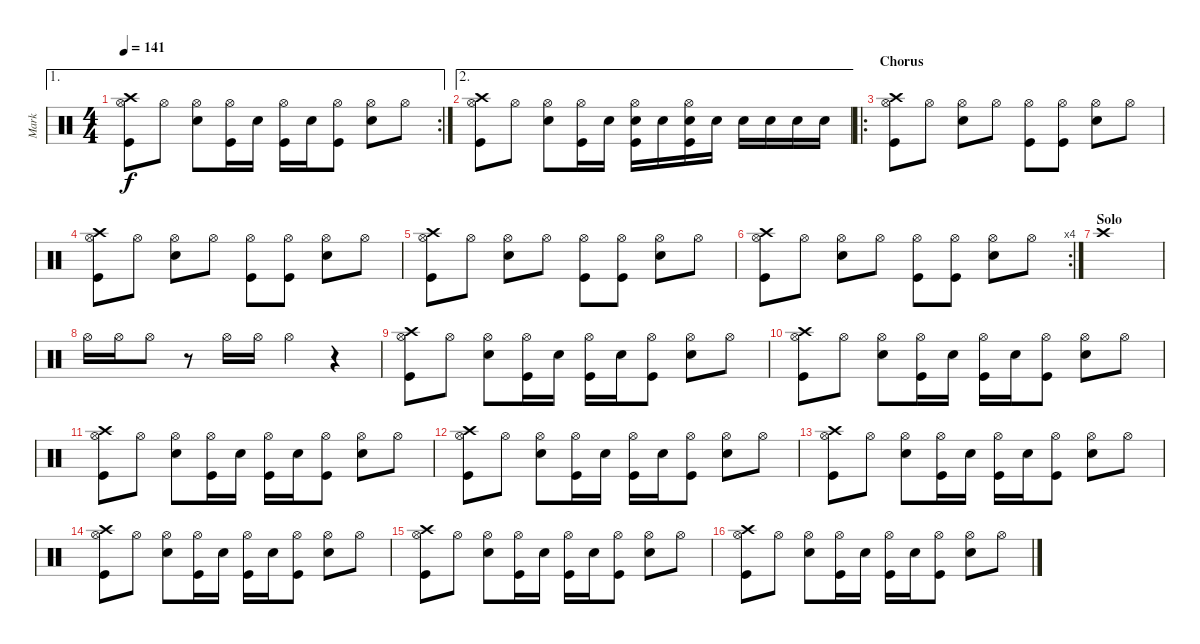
\track ("Mark" "Mark") {instrument percussion}
\staff {score}
\articulation defaults
\ae 1
\rc 2
\ts (4 4)
\tempo 141
\clef neutral
\ks c
("Crash high (hit)" "Hi-Hat (open)" "Kick (hit)").8{dy f} "Hi-Hat (open)".8 ("Hi-Hat (open)" "Electric Snare (hit)").8 ("Hi-Hat (open)" "Kick (hit)").16 "Electric Snare (hit)".16 ("Hi-Hat (open)" "Kick (hit)").16 "Electric Snare (hit)".16 ("Hi-Hat (open)" "Kick (hit)").8 ("Hi-Hat (open)" "Electric Snare (hit)").8 "Hi-Hat (open)".8 |
\ae 2
("Crash high (hit)" "Hi-Hat (open)" "Kick (hit)").8 "Hi-Hat (open)".8 ("Hi-Hat (open)" "Electric Snare (hit)").8 ("Hi-Hat (open)" "Kick (hit)").16 "Electric Snare (hit)".16 ("Hi-Hat (open)" "Electric Snare (hit)" "Kick (hit)").16 "Electric Snare (hit)".16 ("Hi-Hat (open)" "Electric Snare (hit)" "Kick (hit)").16 "Electric Snare (hit)".16 "Electric Snare (hit)".16 "Electric Snare (hit)".16 "Electric Snare (hit)".16 "Electric Snare (hit)".16 |
\ro
\section ("" "Chorus")
("Crash high (hit)" "Hi-Hat (open)" "Kick (hit)").8 "Hi-Hat (open)".8 ("Hi-Hat (open)" "Electric Snare (hit)").8 "Hi-Hat (open)".8 ("Hi-Hat (open)" "Kick (hit)").8 ("Hi-Hat (open)" "Kick (hit)").8 ("Hi-Hat (open)" "Electric Snare (hit)").8 "Hi-Hat (open)".8 |
("Crash high (hit)" "Hi-Hat (open)" "Kick (hit)").8 "Hi-Hat (open)".8 ("Hi-Hat (open)" "Electric Snare (hit)").8 "Hi-Hat (open)".8 ("Hi-Hat (open)" "Kick (hit)").8 ("Hi-Hat (open)" "Kick (hit)").8 ("Hi-Hat (open)" "Electric Snare (hit)").8 "Hi-Hat (open)".8 |
("Crash high (hit)" "Hi-Hat (open)" "Kick (hit)").8 "Hi-Hat (open)".8 ("Hi-Hat (open)" "Electric Snare (hit)").8 "Hi-Hat (open)".8 ("Hi-Hat (open)" "Kick (hit)").8 ("Hi-Hat (open)" "Kick (hit)").8 ("Hi-Hat (open)" "Electric Snare (hit)").8 "Hi-Hat (open)".8 |
\rc 4
("Crash high (hit)" "Hi-Hat (open)" "Kick (hit)").8 "Hi-Hat (open)".8 ("Hi-Hat (open)" "Electric Snare (hit)").8 "Hi-Hat (open)".8 ("Hi-Hat (open)" "Kick (hit)").8 ("Hi-Hat (open)" "Kick (hit)").8 ("Hi-Hat (open)" "Electric Snare (hit)").8 "Hi-Hat (open)".8 |
\section ("" "Solo")
"Crash high (hit)".1 |
"Hi-Hat (open)".16 "Hi-Hat (open)".16 "Hi-Hat (open)".8 r.8 "Hi-Hat (open)".16 "Hi-Hat (open)".16 "Hi-Hat (open)".4 r.4 |
("Crash high (hit)" "Hi-Hat (open)" "Kick (hit)").8 "Hi-Hat (open)".8 ("Hi-Hat (open)" "Electric Snare (hit)").8 ("Hi-Hat (open)" "Kick (hit)").16 "Electric Snare (hit)".16 ("Hi-Hat (open)" "Kick (hit)").16 "Electric Snare (hit)".16 ("Hi-Hat (open)" "Kick (hit)").8 ("Hi-Hat (open)" "Electric Snare (hit)").8 "Hi-Hat (open)".8 |
("Crash high (hit)" "Hi-Hat (open)" "Kick (hit)").8 "Hi-Hat (open)".8 ("Hi-Hat (open)" "Electric Snare (hit)").8 ("Hi-Hat (open)" "Kick (hit)").16 "Electric Snare (hit)".16 ("Hi-Hat (open)" "Kick (hit)").16 "Electric Snare (hit)".16 ("Hi-Hat (open)" "Kick (hit)").8 ("Hi-Hat (open)" "Electric Snare (hit)").8 "Hi-Hat (open)".8 |
("Crash high (hit)" "Hi-Hat (open)" "Kick (hit)").8 "Hi-Hat (open)".8 ("Hi-Hat (open)" "Electric Snare (hit)").8 ("Hi-Hat (open)" "Kick (hit)").16 "Electric Snare (hit)".16 ("Hi-Hat (open)" "Kick (hit)").16 "Electric Snare (hit)".16 ("Hi-Hat (open)" "Kick (hit)").8 ("Hi-Hat (open)" "Electric Snare (hit)").8 "Hi-Hat (open)".8 |
("Crash high (hit)" "Hi-Hat (open)" "Kick (hit)").8 "Hi-Hat (open)".8 ("Hi-Hat (open)" "Electric Snare (hit)").8 ("Hi-Hat (open)" "Kick (hit)").16 "Electric Snare (hit)".16 ("Hi-Hat (open)" "Kick (hit)").16 "Electric Snare (hit)".16 ("Hi-Hat (open)" "Kick (hit)").8 ("Hi-Hat (open)" "Electric Snare (hit)").8 "Hi-Hat (open)".8 |
("Crash high (hit)" "Hi-Hat (open)" "Kick (hit)").8 "Hi-Hat (open)".8 ("Hi-Hat (open)" "Electric Snare (hit)").8 ("Hi-Hat (open)" "Kick (hit)").16 "Electric Snare (hit)".16 ("Hi-Hat (open)" "Kick (hit)").16 "Electric Snare (hit)".16 ("Hi-Hat (open)" "Kick (hit)").8 ("Hi-Hat (open)" "Electric Snare (hit)").8 "Hi-Hat (open)".8 |
("Crash high (hit)" "Hi-Hat (open)" "Kick (hit)").8 "Hi-Hat (open)".8 ("Hi-Hat (open)" "Electric Snare (hit)").8 ("Hi-Hat (open)" "Kick (hit)").16 "Electric Snare (hit)".16 ("Hi-Hat (open)" "Kick (hit)").16 "Electric Snare (hit)".16 ("Hi-Hat (open)" "Kick (hit)").8 ("Hi-Hat (open)" "Electric Snare (hit)").8 "Hi-Hat (open)".8 |
("Crash high (hit)" "Hi-Hat (open)" "Kick (hit)").8 "Hi-Hat (open)".8 ("Hi-Hat (open)" "Electric Snare (hit)").8 ("Hi-Hat (open)" "Kick (hit)").16 "Electric Snare (hit)".16 ("Hi-Hat (open)" "Kick (hit)").16 "Electric Snare (hit)".16 ("Hi-Hat (open)" "Kick (hit)").8 ("Hi-Hat (open)" "Electric Snare (hit)").8 "Hi-Hat (open)".8 |
("Crash high (hit)" "Hi-Hat (open)" "Kick (hit)").8 "Hi-Hat (open)".8 ("Hi-Hat (open)" "Electric Snare (hit)").8 ("Hi-Hat (open)" "Kick (hit)").16 "Electric Snare (hit)".16 ("Hi-Hat (open)" "Kick (hit)").16 "Electric Snare (hit)".16 ("Hi-Hat (open)" "Kick (hit)").8 ("Hi-Hat (open)" "Electric Snare (hit)").8 "Hi-Hat (open)".8
